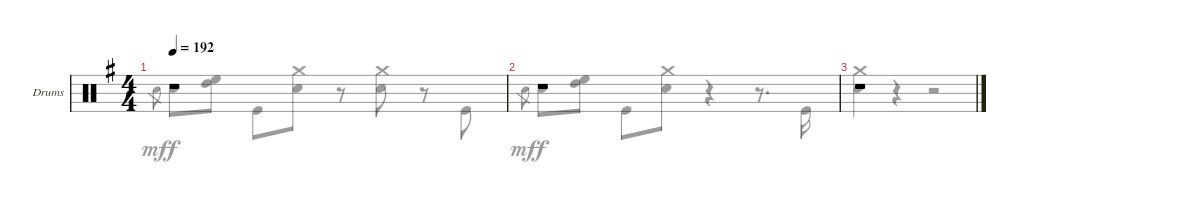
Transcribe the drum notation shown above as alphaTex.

\bracketExtendMode groupsimilarinstruments
\firstSystemTrackNameOrientation horizontal
\otherSystemsTrackNameOrientation horizontal
\track ("Drumkit" "Drums") {instrument percussion}
\staff {score}
\articulation defaults
\voice
\ts (4 4)
\tempo 192
\clef neutral
\scale
1.04288
\ks g
r.1{dy f} |
\scale
0.957125 r.1 |
r.1
\voice
\clef neutral
\ottava regular
\simile none
\scale
1.04288
\ks g "Snare (hit) 2".8{gr dy mf} "Snare (hit) 2".8{dy f}
("High Tom (hit)" "High Floor Tom (hit)").8 "Kick (hit)".8 ("Crash medium (hit)" "Snare (hit) 2").8 r.8 ("Crash medium (hit)" "Snare (hit) 2").8 r.8 "Kick (hit)".8 |
\scale
0.957125 "Snare (hit) 2".8{gr dy mf} "Snare (hit) 2".8{dy f} ("High Tom (hit)" "High Floor Tom (hit)").8 "Kick (hit)".8 ("Crash medium (hit)" "Snare (hit) 2").8 r.4{fermata (medium 1)} r.8{d} "Kick (hit)".16 |
("Crash medium (hit)" "Snare (hit) 2").4 r.4 r.2
